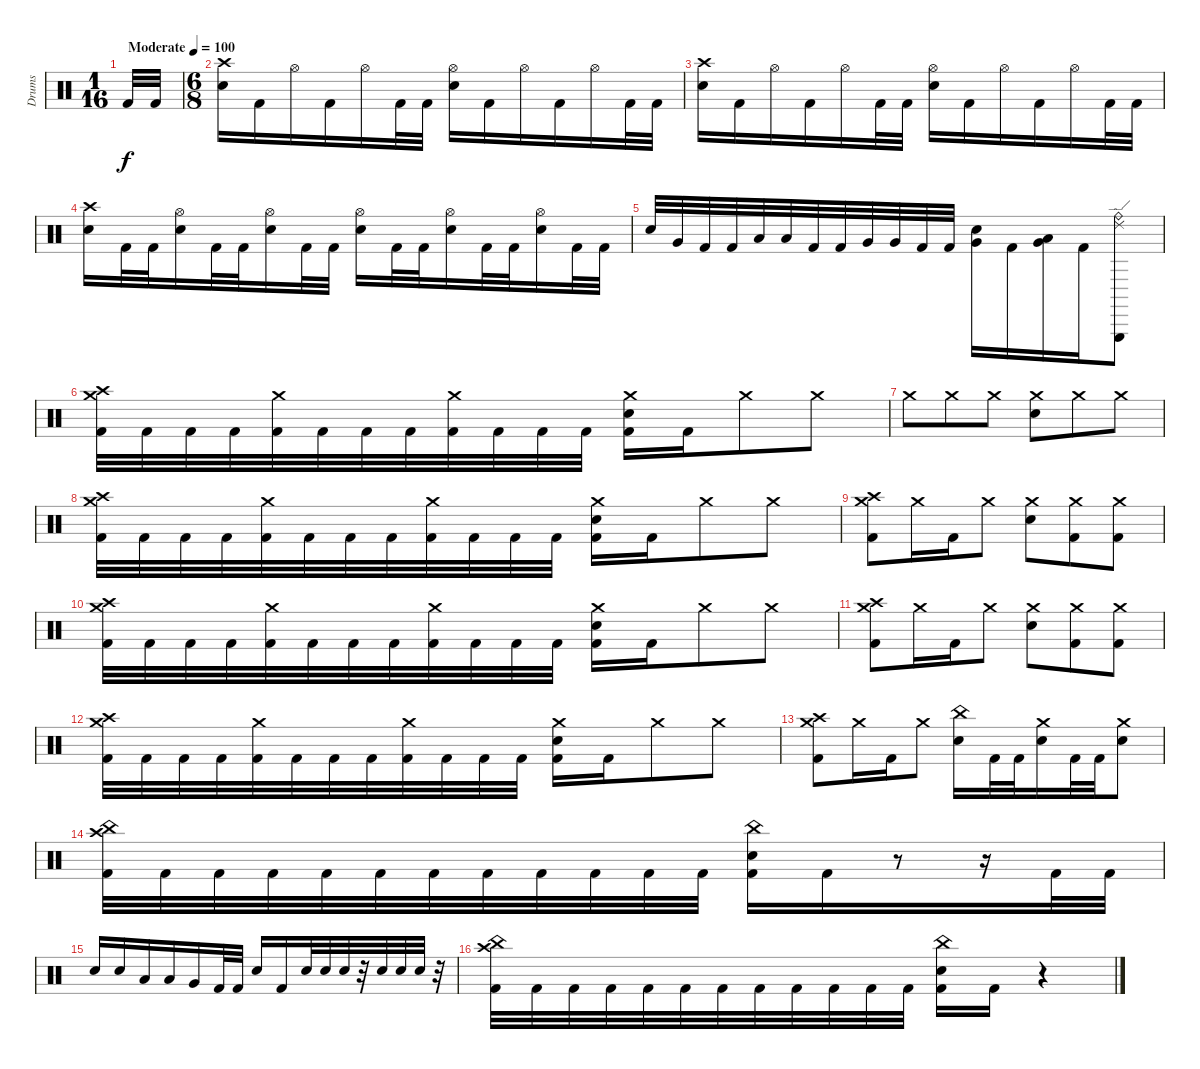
\track ("Drums" "Drums") {instrument percussion}
\staff {score}
\articulation defaults
\ts (1 16)
\tempo (100 "Moderate")
\clef neutral
\ks c "Kick (hit) 2".32{dy f} "Kick (hit) 2".32
|
\ts (6 8)
("Crash high (hit)" "Electric Snare (hit)").16 "Kick (hit) 2".16 "Hi-Hat (open)".16 "Kick (hit) 2".16 "Hi-Hat (open)".16 "Kick (hit) 2".32 "Kick (hit) 2".32 ("Hi-Hat (open)" "Electric Snare (hit)").16 "Kick (hit) 2".16 "Hi-Hat (open)".16 "Kick (hit) 2".16 "Hi-Hat (open)".16 "Kick (hit) 2".32 "Kick (hit) 2".32 |
("Crash high (hit)" "Electric Snare (hit)").16 "Kick (hit) 2".16 "Hi-Hat (open)".16 "Kick (hit) 2".16 "Hi-Hat (open)".16 "Kick (hit) 2".32 "Kick (hit) 2".32 ("Hi-Hat (open)" "Electric Snare (hit)").16 "Kick (hit) 2".16 "Hi-Hat (open)".16 "Kick (hit) 2".16 "Hi-Hat (open)".16 "Kick (hit) 2".32 "Kick (hit) 2".32 |
("Crash high (hit)" "Electric Snare (hit)").16 "Kick (hit) 2".32 "Kick (hit) 2".32 ("Hi-Hat (open)" "Electric Snare (hit)").16 "Kick (hit) 2".32 "Kick (hit) 2".32 ("Hi-Hat (open)" "Electric Snare (hit)").16 "Kick (hit) 2".32 "Kick (hit) 2".32 ("Hi-Hat (open)" "Electric Snare (hit)").16 "Kick (hit) 2".32 "Kick (hit) 2".32 ("Hi-Hat (open)" "Electric Snare (hit)").16 "Kick (hit) 2".32 "Kick (hit) 2".32 ("Hi-Hat (open)" "Electric Snare (hit)").16 "Kick (hit) 2".32 "Kick (hit) 2".32 |
"Electric Snare (hit)".32 "Very Low Tom (hit)".32 "Kick (hit) 2".32 "Kick (hit) 2".32 "Low Tom (hit)".32 "Low Tom (hit)".32 "Kick (hit) 2".32 "Kick (hit) 2".32 "Very Low Tom (hit)".32 "Very Low Tom (hit)".32 "Kick (hit) 2".32 "Kick (hit) 2".32 ("Very Low Tom (hit)" "Electric Snare (hit)").16 "Kick (hit) 2".16 ("Very Low Tom (hit)" "Low Tom (hit)").16 "Kick (hit) 2".16 ("Ride (edge) 2" "Triangle (hit)" "Ride (bell)").8 |
("Crash medium (hit)" "Crash high (hit)" "Kick (hit) 2").32 "Kick (hit) 2".32 "Kick (hit) 2".32 "Kick (hit) 2".32 ("Crash medium (hit)" "Kick (hit) 2").32 "Kick (hit) 2".32 "Kick (hit) 2".32 "Kick (hit) 2".32 ("Crash medium (hit)" "Kick (hit) 2").32 "Kick (hit) 2".32 "Kick (hit) 2".32 "Kick (hit) 2".32 ("Crash medium (hit)" "Electric Snare (hit)" "Kick (hit) 2").16 "Kick (hit) 2".16 "Crash medium (hit)".8 "Crash medium (hit)".8 |
"Crash medium (hit)".8 "Crash medium (hit)".8 "Crash medium (hit)".8 ("Crash medium (hit)" "Electric Snare (hit)").8 "Crash medium (hit)".8 "Crash medium (hit)".8 |
("Crash medium (hit)" "Crash high (hit)" "Kick (hit) 2").32 "Kick (hit) 2".32 "Kick (hit) 2".32 "Kick (hit) 2".32 ("Crash medium (hit)" "Kick (hit) 2").32 "Kick (hit) 2".32 "Kick (hit) 2".32 "Kick (hit) 2".32 ("Crash medium (hit)" "Kick (hit) 2").32 "Kick (hit) 2".32 "Kick (hit) 2".32 "Kick (hit) 2".32 ("Crash medium (hit)" "Electric Snare (hit)" "Kick (hit) 2").16 "Kick (hit) 2".16 "Crash medium (hit)".8 "Crash medium (hit)".8 |
("Crash medium (hit)" "Crash high (hit)" "Kick (hit) 2").8 "Crash medium (hit)".16 "Kick (hit) 2".16 "Crash medium (hit)".8 ("Crash medium (hit)" "Electric Snare (hit)").8 ("Crash medium (hit)" "Kick (hit) 2").8 ("Crash medium (hit)" "Kick (hit) 2").8 |
("Crash medium (hit)" "Crash high (hit)" "Kick (hit) 2").32 "Kick (hit) 2".32 "Kick (hit) 2".32 "Kick (hit) 2".32 ("Crash medium (hit)" "Kick (hit) 2").32 "Kick (hit) 2".32 "Kick (hit) 2".32 "Kick (hit) 2".32 ("Crash medium (hit)" "Kick (hit) 2").32 "Kick (hit) 2".32 "Kick (hit) 2".32 "Kick (hit) 2".32 ("Crash medium (hit)" "Electric Snare (hit)" "Kick (hit) 2").16 "Kick (hit) 2".16 "Crash medium (hit)".8 "Crash medium (hit)".8 |
("Crash medium (hit)" "Crash high (hit)" "Kick (hit) 2").8 "Crash medium (hit)".16 "Kick (hit) 2".16 "Crash medium (hit)".8 ("Crash medium (hit)" "Electric Snare (hit)").8 ("Crash medium (hit)" "Kick (hit) 2").8 ("Crash medium (hit)" "Kick (hit) 2").8 |
("Crash medium (hit)" "Crash high (hit)" "Kick (hit) 2").32 "Kick (hit) 2".32 "Kick (hit) 2".32 "Kick (hit) 2".32 ("Crash medium (hit)" "Kick (hit) 2").32 "Kick (hit) 2".32 "Kick (hit) 2".32 "Kick (hit) 2".32 ("Crash medium (hit)" "Kick (hit) 2").32 "Kick (hit) 2".32 "Kick (hit) 2".32 "Kick (hit) 2".32 ("Crash medium (hit)" "Electric Snare (hit)" "Kick (hit) 2").16 "Kick (hit) 2".16 "Crash medium (hit)".8 "Crash medium (hit)".8 |
("Crash medium (hit)" "Crash high (hit)" "Kick (hit) 2").8 "Crash medium (hit)".16 "Kick (hit) 2".16 "Crash medium (hit)".8 ("China (hit)" "Electric Snare (hit)").16 "Kick (hit) 2".32 "Kick (hit) 2".32 ("Crash medium (hit)" "Electric Snare (hit)").16 "Kick (hit) 2".32 "Kick (hit) 2".32 ("Crash medium (hit)" "Electric Snare (hit)").8 |
("China (hit)" "Crash high (hit)" "Kick (hit) 2").32 "Kick (hit) 2".32 "Kick (hit) 2".32 "Kick (hit) 2".32 "Kick (hit) 2".32 "Kick (hit) 2".32 "Kick (hit) 2".32 "Kick (hit) 2".32 "Kick (hit) 2".32 "Kick (hit) 2".32 "Kick (hit) 2".32 "Kick (hit) 2".32 ("China (hit)" "Electric Snare (hit)" "Kick (hit) 2").16 "Kick (hit) 2".16 r.8 r.16 "Kick (hit) 2".32 "Kick (hit) 2".32 |
"Electric Snare (hit)".16 "Electric Snare (hit)".16 "Low Tom (hit)".16 "Low Tom (hit)".16 "Very Low Tom (hit)".16 "Kick (hit) 2".32 "Kick (hit) 2".32 "Electric Snare (hit)".16 "Kick (hit) 2".16 "Electric Snare (hit)".32 "Electric Snare (hit)".32 "Electric Snare (hit)".32 r.32 "Electric Snare (hit)".32 "Electric Snare (hit)".32 "Electric Snare (hit)".32 r.32 |
("China (hit)" "Crash high (hit)" "Kick (hit) 2").32 "Kick (hit) 2".32 "Kick (hit) 2".32 "Kick (hit) 2".32 "Kick (hit) 2".32 "Kick (hit) 2".32 "Kick (hit) 2".32 "Kick (hit) 2".32 "Kick (hit) 2".32 "Kick (hit) 2".32 "Kick (hit) 2".32 "Kick (hit) 2".32 ("China (hit)" "Electric Snare (hit)" "Kick (hit) 2").16 "Kick (hit) 2".16 r.4
